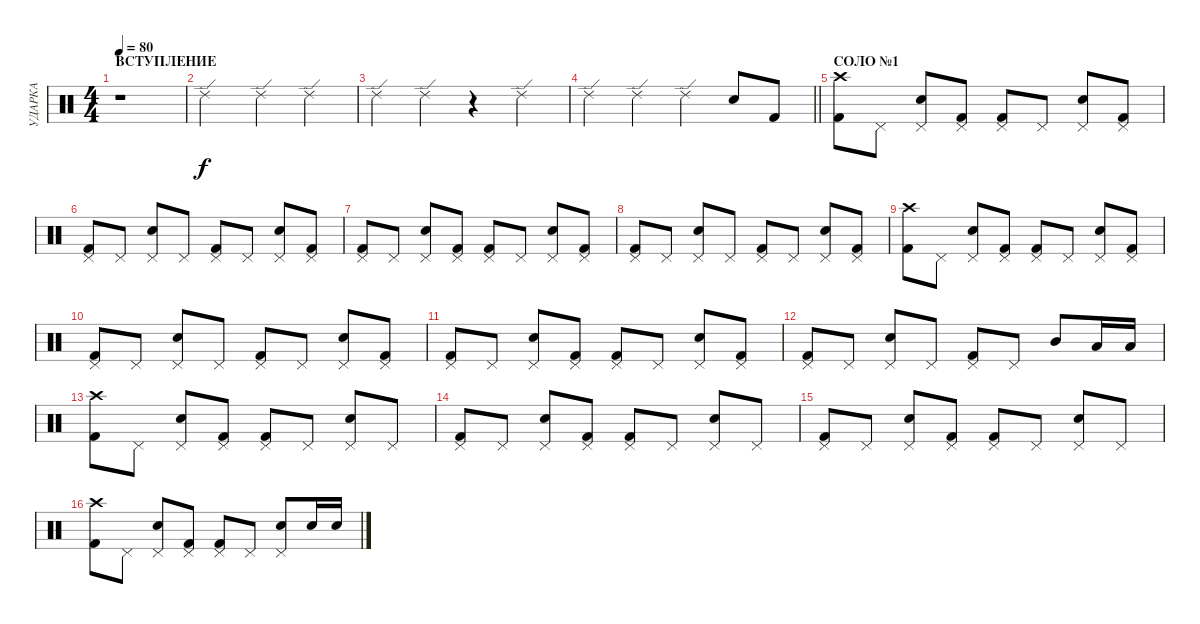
\track ("УДАРКА" "УДАРКА") {instrument percussion}
\staff {score}
\articulation defaults
\ts (4 4)
\section ("" "ВСТУПЛЕНИЕ")
\tempo 80
\clef neutral
\ks c
r.1{dy f} |
"Ride (edge) 2".2 "Ride (edge) 2".4 "Ride (edge) 2".4 |
"Ride (edge) 2".4 "Ride (edge) 2".4 r.4 "Ride (edge) 2".4 |
\barLineRight lightlight "Ride (edge) 2".4 "Ride (edge) 2".4 "Ride (edge) 2".4 "Electric Snare (hit)".8 "Kick (hit) 2".8
|
\section ("" "СОЛО №1")
("Crash high (hit)" "Kick (hit) 2").8 "Pedal Hi-Hat (hit)".8 ("Pedal Hi-Hat (hit)" "Electric Snare (hit)").8 ("Pedal Hi-Hat (hit)" "Kick (hit) 2").8 ("Pedal Hi-Hat (hit)" "Kick (hit) 2").8 "Pedal Hi-Hat (hit)".8 ("Pedal Hi-Hat (hit)" "Electric Snare (hit)").8 ("Pedal Hi-Hat (hit)" "Kick (hit) 2").8 |
("Pedal Hi-Hat (hit)" "Kick (hit) 2").8 "Pedal Hi-Hat (hit)".8 ("Pedal Hi-Hat (hit)" "Electric Snare (hit)").8 "Pedal Hi-Hat (hit)".8 ("Pedal Hi-Hat (hit)" "Kick (hit) 2").8 "Pedal Hi-Hat (hit)".8 ("Pedal Hi-Hat (hit)" "Electric Snare (hit)").8 ("Pedal Hi-Hat (hit)" "Kick (hit) 2").8 |
("Pedal Hi-Hat (hit)" "Kick (hit) 2").8 "Pedal Hi-Hat (hit)".8 ("Pedal Hi-Hat (hit)" "Electric Snare (hit)").8 ("Pedal Hi-Hat (hit)" "Kick (hit) 2").8 ("Pedal Hi-Hat (hit)" "Kick (hit) 2").8 "Pedal Hi-Hat (hit)".8 ("Pedal Hi-Hat (hit)" "Electric Snare (hit)").8 ("Pedal Hi-Hat (hit)" "Kick (hit) 2").8 |
("Pedal Hi-Hat (hit)" "Kick (hit) 2").8 "Pedal Hi-Hat (hit)".8 ("Pedal Hi-Hat (hit)" "Electric Snare (hit)").8 "Pedal Hi-Hat (hit)".8 ("Pedal Hi-Hat (hit)" "Kick (hit) 2").8 "Pedal Hi-Hat (hit)".8 ("Pedal Hi-Hat (hit)" "Electric Snare (hit)").8 ("Pedal Hi-Hat (hit)" "Kick (hit) 2").8 |
("Crash high (hit)" "Kick (hit) 2").8 "Pedal Hi-Hat (hit)".8 ("Pedal Hi-Hat (hit)" "Electric Snare (hit)").8 ("Pedal Hi-Hat (hit)" "Kick (hit) 2").8 ("Pedal Hi-Hat (hit)" "Kick (hit) 2").8 "Pedal Hi-Hat (hit)".8 ("Pedal Hi-Hat (hit)" "Electric Snare (hit)").8 ("Pedal Hi-Hat (hit)" "Kick (hit) 2").8 |
("Pedal Hi-Hat (hit)" "Kick (hit) 2").8 "Pedal Hi-Hat (hit)".8 ("Pedal Hi-Hat (hit)" "Electric Snare (hit)").8 "Pedal Hi-Hat (hit)".8 ("Pedal Hi-Hat (hit)" "Kick (hit) 2").8 "Pedal Hi-Hat (hit)".8 ("Pedal Hi-Hat (hit)" "Electric Snare (hit)").8 ("Pedal Hi-Hat (hit)" "Kick (hit) 2").8 |
("Pedal Hi-Hat (hit)" "Kick (hit) 2").8 "Pedal Hi-Hat (hit)".8 ("Pedal Hi-Hat (hit)" "Electric Snare (hit)").8 ("Pedal Hi-Hat (hit)" "Kick (hit) 2").8 ("Pedal Hi-Hat (hit)" "Kick (hit) 2").8 "Pedal Hi-Hat (hit)".8 ("Pedal Hi-Hat (hit)" "Electric Snare (hit)").8 ("Pedal Hi-Hat (hit)" "Kick (hit) 2").8 |
("Pedal Hi-Hat (hit)" "Kick (hit) 2").8 "Pedal Hi-Hat (hit)".8 ("Pedal Hi-Hat (hit)" "Electric Snare (hit)").8 "Pedal Hi-Hat (hit)".8 ("Pedal Hi-Hat (hit)" "Kick (hit) 2").8 "Pedal Hi-Hat (hit)".8 "Mid Tom (hit)".8 "Low Tom (hit)".16 "Low Tom (hit)".16 |
("Crash high (hit)" "Kick (hit) 2").8 "Pedal Hi-Hat (hit)".8 ("Pedal Hi-Hat (hit)" "Electric Snare (hit)").8 ("Pedal Hi-Hat (hit)" "Kick (hit) 2").8 ("Pedal Hi-Hat (hit)" "Kick (hit) 2").8 "Pedal Hi-Hat (hit)".8 ("Pedal Hi-Hat (hit)" "Electric Snare (hit)").8 "Pedal Hi-Hat (hit)".8 |
("Pedal Hi-Hat (hit)" "Kick (hit) 2").8 "Pedal Hi-Hat (hit)".8 ("Pedal Hi-Hat (hit)" "Electric Snare (hit)").8 ("Pedal Hi-Hat (hit)" "Kick (hit) 2").8 ("Pedal Hi-Hat (hit)" "Kick (hit) 2").8 "Pedal Hi-Hat (hit)".8 ("Pedal Hi-Hat (hit)" "Electric Snare (hit)").8 "Pedal Hi-Hat (hit)".8 |
("Pedal Hi-Hat (hit)" "Kick (hit) 2").8 "Pedal Hi-Hat (hit)".8 ("Pedal Hi-Hat (hit)" "Electric Snare (hit)").8 ("Pedal Hi-Hat (hit)" "Kick (hit) 2").8 ("Pedal Hi-Hat (hit)" "Kick (hit) 2").8 "Pedal Hi-Hat (hit)".8 ("Pedal Hi-Hat (hit)" "Electric Snare (hit)").8 "Pedal Hi-Hat (hit)".8 |
("Kick (hit) 2" "Crash high (hit)").8 "Pedal Hi-Hat (hit)".8 ("Pedal Hi-Hat (hit)" "Electric Snare (hit)").8 ("Pedal Hi-Hat (hit)" "Kick (hit) 2").8 ("Pedal Hi-Hat (hit)" "Kick (hit) 2").8 "Pedal Hi-Hat (hit)".8 ("Pedal Hi-Hat (hit)" "Electric Snare (hit)").8 "Electric Snare (hit)".16 "Electric Snare (hit)".16
